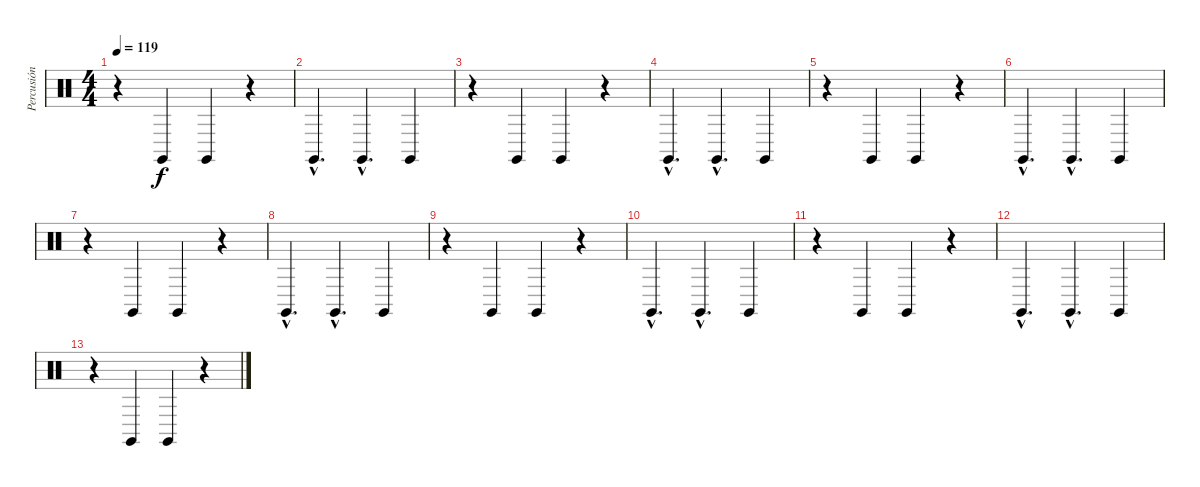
\track ("Percusión" "Percusión") {instrument percussion}
\staff {score}
\articulation defaults
\ts (4 4)
\tempo 119
\clef neutral
\ks c
r.4{dy f} "Claves (hit)".4 "Claves (hit)".4 r.4 |
"Claves (hit)"{hac}.4{d} "Claves (hit)"{hac}.4{d} "Claves (hit)".4 |
r.4 "Claves (hit)".4 "Claves (hit)".4 r.4 |
"Claves (hit)"{hac}.4{d} "Claves (hit)"{hac}.4{d} "Claves (hit)".4 |
r.4 "Claves (hit)".4 "Claves (hit)".4 r.4 |
"Claves (hit)"{hac}.4{d} "Claves (hit)"{hac}.4{d} "Claves (hit)".4 |
r.4 "Claves (hit)".4 "Claves (hit)".4 r.4 |
"Claves (hit)"{hac}.4{d} "Claves (hit)"{hac}.4{d} "Claves (hit)".4 |
r.4 "Claves (hit)".4 "Claves (hit)".4 r.4 |
"Claves (hit)"{hac}.4{d} "Claves (hit)"{hac}.4{d} "Claves (hit)".4 |
r.4 "Claves (hit)".4 "Claves (hit)".4 r.4 |
"Claves (hit)"{hac}.4{d} "Claves (hit)"{hac}.4{d} "Claves (hit)".4 |
r.4 "Claves (hit)".4 "Claves (hit)".4 r.4
